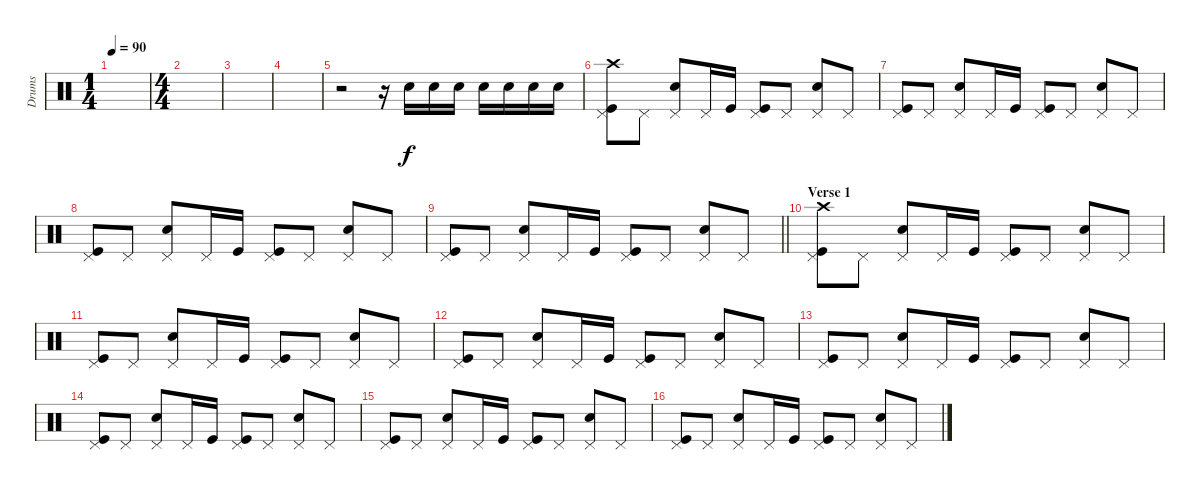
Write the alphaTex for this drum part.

\track ("Drums" "Drums") {instrument percussion}
\staff {score}
\articulation defaults
\ts (1 4)
\tempo 90
\clef neutral
\ks c
|
\ts (4 4)
|
|
|
r.2 r.16 "Snare (hit) 2".16 "Snare (hit) 2".16 "Snare (hit) 2".16 "Snare (hit) 2".16 "Snare (hit) 2".16 "Snare (hit) 2".16 "Snare (hit) 2".16 |
("Pedal Hi-Hat (hit)" "Kick (hit)" "Crash high (hit)").8 "Pedal Hi-Hat (hit)".8 ("Pedal Hi-Hat (hit)" "Snare (hit) 2").8 "Pedal Hi-Hat (hit)".16 "Kick (hit)".16 ("Pedal Hi-Hat (hit)" "Kick (hit)").8 "Pedal Hi-Hat (hit)".8 ("Pedal Hi-Hat (hit)" "Snare (hit) 2").8 "Pedal Hi-Hat (hit)".8 |
("Pedal Hi-Hat (hit)" "Kick (hit)").8 "Pedal Hi-Hat (hit)".8 ("Pedal Hi-Hat (hit)" "Snare (hit) 2").8 "Pedal Hi-Hat (hit)".16 "Kick (hit)".16 ("Pedal Hi-Hat (hit)" "Kick (hit)").8 "Pedal Hi-Hat (hit)".8 ("Pedal Hi-Hat (hit)" "Snare (hit) 2").8 "Pedal Hi-Hat (hit)".8 |
("Pedal Hi-Hat (hit)" "Kick (hit)").8 "Pedal Hi-Hat (hit)".8 ("Pedal Hi-Hat (hit)" "Snare (hit) 2").8 "Pedal Hi-Hat (hit)".16 "Kick (hit)".16 ("Pedal Hi-Hat (hit)" "Kick (hit)").8 "Pedal Hi-Hat (hit)".8 ("Pedal Hi-Hat (hit)" "Snare (hit) 2").8 "Pedal Hi-Hat (hit)".8 |
\barLineRight lightlight
("Pedal Hi-Hat (hit)" "Kick (hit)").8 "Pedal Hi-Hat (hit)".8 ("Pedal Hi-Hat (hit)" "Snare (hit) 2").8 "Pedal Hi-Hat (hit)".16 "Kick (hit)".16 ("Pedal Hi-Hat (hit)" "Kick (hit)").8 "Pedal Hi-Hat (hit)".8 ("Pedal Hi-Hat (hit)" "Snare (hit) 2").8 "Pedal Hi-Hat (hit)".8 |
\section ("" "Verse 1")
("Pedal Hi-Hat (hit)" "Kick (hit)" "Crash high (hit)").8 "Pedal Hi-Hat (hit)".8 ("Pedal Hi-Hat (hit)" "Snare (hit) 2").8 "Pedal Hi-Hat (hit)".16 "Kick (hit)".16 ("Pedal Hi-Hat (hit)" "Kick (hit)").8 "Pedal Hi-Hat (hit)".8 ("Pedal Hi-Hat (hit)" "Snare (hit) 2").8 "Pedal Hi-Hat (hit)".8 |
("Pedal Hi-Hat (hit)" "Kick (hit)").8 "Pedal Hi-Hat (hit)".8 ("Pedal Hi-Hat (hit)" "Snare (hit) 2").8 "Pedal Hi-Hat (hit)".16 "Kick (hit)".16 ("Pedal Hi-Hat (hit)" "Kick (hit)").8 "Pedal Hi-Hat (hit)".8 ("Pedal Hi-Hat (hit)" "Snare (hit) 2").8 "Pedal Hi-Hat (hit)".8 |
("Pedal Hi-Hat (hit)" "Kick (hit)").8 "Pedal Hi-Hat (hit)".8 ("Pedal Hi-Hat (hit)" "Snare (hit) 2").8 "Pedal Hi-Hat (hit)".16 "Kick (hit)".16 ("Pedal Hi-Hat (hit)" "Kick (hit)").8 "Pedal Hi-Hat (hit)".8 ("Pedal Hi-Hat (hit)" "Snare (hit) 2").8 "Pedal Hi-Hat (hit)".8 |
("Pedal Hi-Hat (hit)" "Kick (hit)").8 "Pedal Hi-Hat (hit)".8 ("Pedal Hi-Hat (hit)" "Snare (hit) 2").8 "Pedal Hi-Hat (hit)".16 "Kick (hit)".16 ("Pedal Hi-Hat (hit)" "Kick (hit)").8 "Pedal Hi-Hat (hit)".8 ("Pedal Hi-Hat (hit)" "Snare (hit) 2").8 "Pedal Hi-Hat (hit)".8 |
("Pedal Hi-Hat (hit)" "Kick (hit)").8 "Pedal Hi-Hat (hit)".8 ("Pedal Hi-Hat (hit)" "Snare (hit) 2").8 "Pedal Hi-Hat (hit)".16 "Kick (hit)".16 ("Pedal Hi-Hat (hit)" "Kick (hit)").8 "Pedal Hi-Hat (hit)".8 ("Pedal Hi-Hat (hit)" "Snare (hit) 2").8 "Pedal Hi-Hat (hit)".8 |
("Pedal Hi-Hat (hit)" "Kick (hit)").8 "Pedal Hi-Hat (hit)".8 ("Pedal Hi-Hat (hit)" "Snare (hit) 2").8 "Pedal Hi-Hat (hit)".16 "Kick (hit)".16 ("Pedal Hi-Hat (hit)" "Kick (hit)").8 "Pedal Hi-Hat (hit)".8 ("Pedal Hi-Hat (hit)" "Snare (hit) 2").8 "Pedal Hi-Hat (hit)".8 |
("Pedal Hi-Hat (hit)" "Kick (hit)").8 "Pedal Hi-Hat (hit)".8 ("Pedal Hi-Hat (hit)" "Snare (hit) 2").8 "Pedal Hi-Hat (hit)".16 "Kick (hit)".16 ("Pedal Hi-Hat (hit)" "Kick (hit)").8 "Pedal Hi-Hat (hit)".8 ("Pedal Hi-Hat (hit)" "Snare (hit) 2").8 "Pedal Hi-Hat (hit)".8
